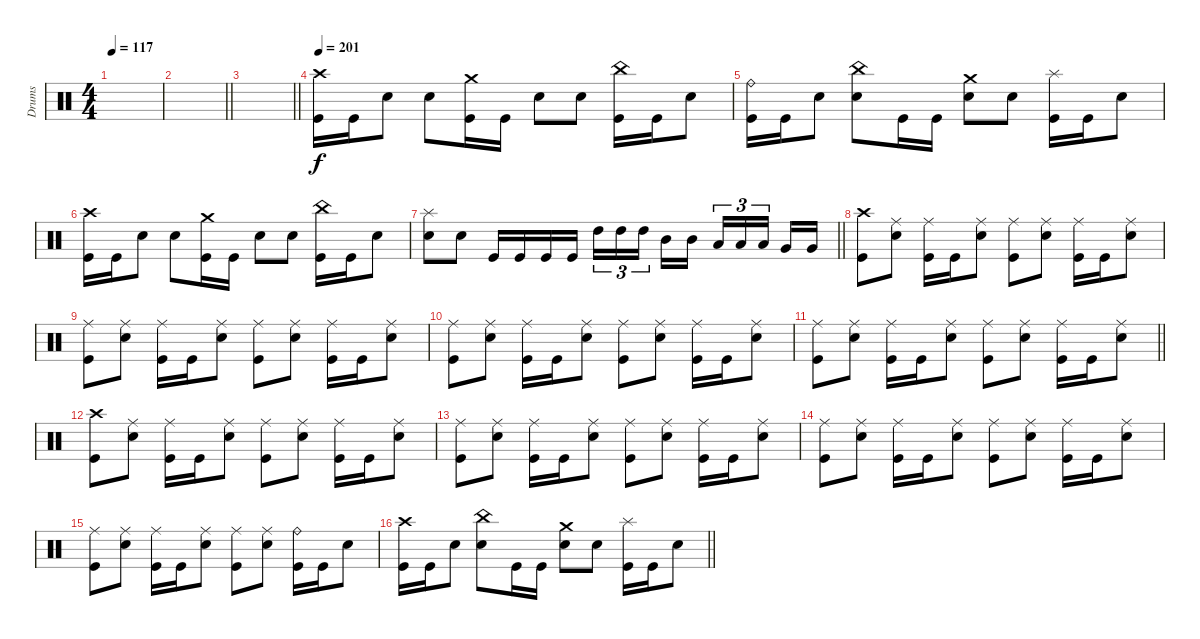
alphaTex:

\track ("Drums" "Drums") {instrument percussion}
\staff
\articulation defaults
\ts (4 4)
\tempo 117
\clef neutral
\ks c
|
\barLineRight lightlight
|
\barLineRight lightlight
|
\section ("" "")
\tempo 201
("Crash high (hit)" "Kick (hit)").16{volume 15} "Kick (hit)".16 "Electric Snare (hit)".8 "Electric Snare (hit)".8 ("Crash medium (hit)" "Kick (hit)").16 "Kick (hit)".16 "Electric Snare (hit)".8 "Electric Snare (hit)".8 ("China (hit)" "Kick (hit)").16 "Kick (hit)".16 "Electric Snare (hit)".8 |
("Ride (bell)" "Kick (hit)").16 "Kick (hit)".16 "Electric Snare (hit)".8 ("China (hit)" "Electric Snare (hit)").8 "Kick (hit)".16 "Kick (hit)".16 ("Crash medium (hit)" "Electric Snare (hit)").8 "Electric Snare (hit)".8 ("Splash (hit)" "Kick (hit)").16 "Kick (hit)".16 "Electric Snare (hit)".8 |
("Crash high (hit)" "Kick (hit)").16 "Kick (hit)".16 "Electric Snare (hit)".8 "Electric Snare (hit)".8 ("Crash medium (hit)" "Kick (hit)").16 "Kick (hit)".16 "Electric Snare (hit)".8 "Electric Snare (hit)".8 ("China (hit)" "Kick (hit)").16 "Kick (hit)".16 "Electric Snare (hit)".8 |
\barLineRight lightlight
("Splash (hit)" "Electric Snare (hit)").8 "Electric Snare (hit)".8 "Kick (hit)".16 "Kick (hit)".16 "Kick (hit)".16 "Kick (hit)".16 "High Tom (hit)".16{tu (3 2)} "High Tom (hit)".16{tu (3 2)} "High Tom (hit)".16{tu (3 2) beam splitsecondary} "Mid Tom (hit)".16 "Mid Tom (hit)".16 "Low Tom (hit)".16{tu (3 2)} "Low Tom (hit)".16{tu (3 2)} "Low Tom (hit)".16{tu (3 2) beam splitsecondary} "Very Low Tom (hit)".16 "Very Low Tom (hit)".16 |
("Crash high (hit)" "Kick (hit)").8 ("Ride (middle)" "Electric Snare (hit)").8 ("Ride (middle)" "Kick (hit)").16 "Kick (hit)".16 ("Ride (middle)" "Electric Snare (hit)").8 ("Ride (middle)" "Kick (hit)").8 ("Ride (middle)" "Electric Snare (hit)").8 ("Ride (middle)" "Kick (hit)").16 "Kick (hit)".16 ("Ride (middle)" "Electric Snare (hit)").8 |
("Ride (middle)" "Kick (hit)").8 ("Ride (middle)" "Electric Snare (hit)").8 ("Ride (middle)" "Kick (hit)").16 "Kick (hit)".16 ("Ride (middle)" "Electric Snare (hit)").8 ("Ride (middle)" "Kick (hit)").8 ("Ride (middle)" "Electric Snare (hit)").8 ("Ride (middle)" "Kick (hit)").16 "Kick (hit)".16 ("Ride (middle)" "Electric Snare (hit)").8 |
("Ride (middle)" "Kick (hit)").8 ("Ride (middle)" "Electric Snare (hit)").8 ("Ride (middle)" "Kick (hit)").16 "Kick (hit)".16 ("Ride (middle)" "Electric Snare (hit)").8 ("Ride (middle)" "Kick (hit)").8 ("Ride (middle)" "Electric Snare (hit)").8 ("Ride (middle)" "Kick (hit)").16 "Kick (hit)".16 ("Ride (middle)" "Electric Snare (hit)").8 |
\barLineRight lightlight
("Ride (middle)" "Kick (hit)").8 ("Ride (middle)" "Electric Snare (hit)").8 ("Ride (middle)" "Kick (hit)").16 "Kick (hit)".16 ("Ride (middle)" "Electric Snare (hit)").8 ("Ride (middle)" "Kick (hit)").8 ("Ride (middle)" "Electric Snare (hit)").8 ("Ride (middle)" "Kick (hit)").16 "Kick (hit)".16 ("Ride (middle)" "Electric Snare (hit)").8 |
("Crash high (hit)" "Kick (hit)").8 ("Ride (middle)" "Electric Snare (hit)").8 ("Ride (middle)" "Kick (hit)").16 "Kick (hit)".16 ("Ride (middle)" "Electric Snare (hit)").8 ("Ride (middle)" "Kick (hit)").8 ("Ride (middle)" "Electric Snare (hit)").8 ("Ride (middle)" "Kick (hit)").16 "Kick (hit)".16 ("Ride (middle)" "Electric Snare (hit)").8 |
("Ride (middle)" "Kick (hit)").8 ("Ride (middle)" "Electric Snare (hit)").8 ("Ride (middle)" "Kick (hit)").16 "Kick (hit)".16 ("Ride (middle)" "Electric Snare (hit)").8 ("Ride (middle)" "Kick (hit)").8 ("Ride (middle)" "Electric Snare (hit)").8 ("Ride (middle)" "Kick (hit)").16 "Kick (hit)".16 ("Ride (middle)" "Electric Snare (hit)").8 |
("Ride (middle)" "Kick (hit)").8 ("Ride (middle)" "Electric Snare (hit)").8 ("Ride (middle)" "Kick (hit)").16 "Kick (hit)".16 ("Ride (middle)" "Electric Snare (hit)").8 ("Ride (middle)" "Kick (hit)").8 ("Ride (middle)" "Electric Snare (hit)").8 ("Ride (middle)" "Kick (hit)").16 "Kick (hit)".16 ("Ride (middle)" "Electric Snare (hit)").8 |
("Ride (middle)" "Kick (hit)").8 ("Ride (middle)" "Electric Snare (hit)").8 ("Ride (middle)" "Kick (hit)").16 "Kick (hit)".16 ("Ride (middle)" "Electric Snare (hit)").8 ("Ride (middle)" "Kick (hit)").8 ("Ride (middle)" "Electric Snare (hit)").8 ("Ride (bell)" "Kick (hit)").16 "Kick (hit)".16 "Electric Snare (hit)".8 |
\barLineRight lightlight
("Crash high (hit)" "Kick (hit)").16 "Kick (hit)".16 "Electric Snare (hit)".8 ("China (hit)" "Electric Snare (hit)").8 "Kick (hit)".16 "Kick (hit)".16 ("Crash medium (hit)" "Electric Snare (hit)").8 "Electric Snare (hit)".8 ("Splash (hit)" "Kick (hit)").16 "Kick (hit)".16 "Electric Snare (hit)".8
